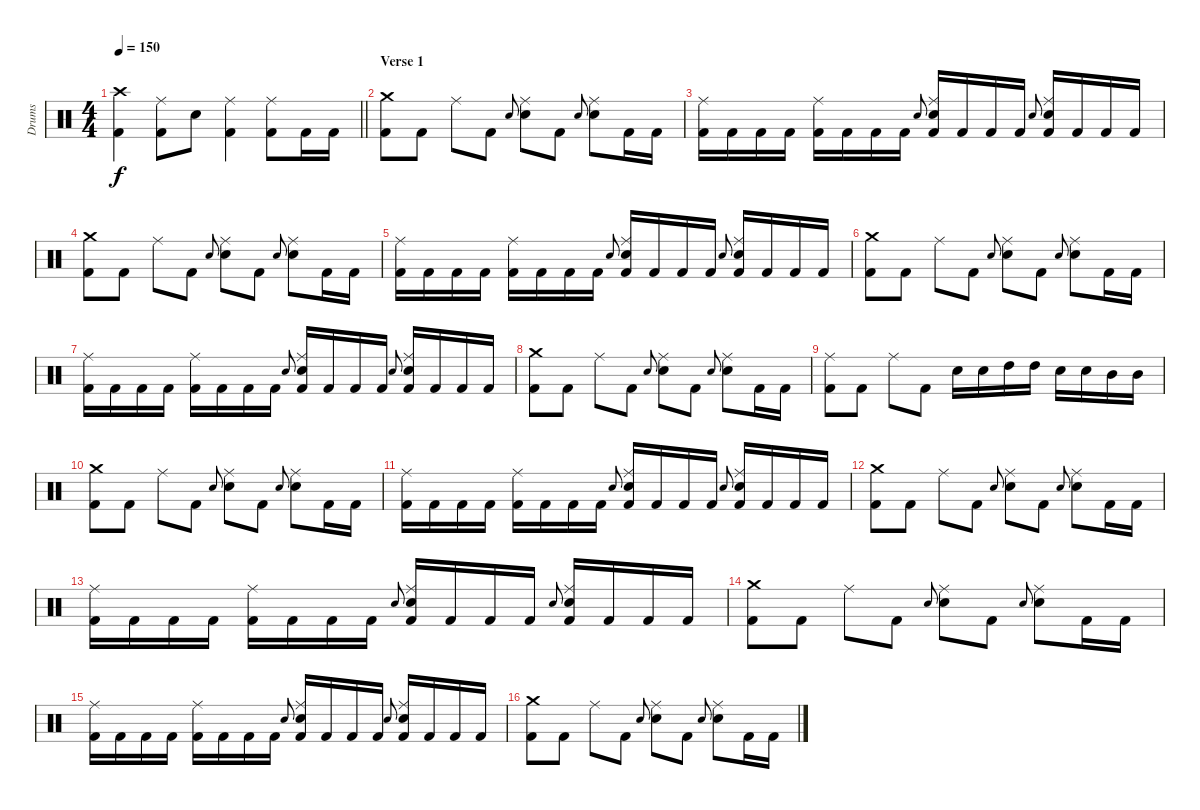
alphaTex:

\track ("Drums" "Drums") {instrument percussion}
\staff {score}
\articulation defaults
\ts (4 4)
\tempo 150
\clef neutral
\barLineRight lightlight
\ks c
("Kick (hit) 2" "Crash high (hit)").4{dy f} ("Kick (hit) 2" "Ride (middle)").8 "Snare (hit) 2".8 ("Kick (hit) 2" "Ride (middle)").4 ("Kick (hit) 2" "Ride (middle)").8 "Kick (hit) 2".16 "Kick (hit) 2".16 |
\section ("" "Verse 1")
("Kick (hit) 2" "Crash medium (hit)").8 "Kick (hit) 2".8 "Ride (middle)".8 "Kick (hit) 2".8 "Snare (hit) 2".8{gr onbeat} ("Snare (hit) 2" "Ride (middle)").8 "Kick (hit) 2".8 "Snare (hit) 2".8{gr onbeat} ("Snare (hit) 2" "Ride (middle)").8 "Kick (hit) 2".16 "Kick (hit) 2".16 |
("Kick (hit) 2" "Ride (middle)").16 "Kick (hit) 2".16 "Kick (hit) 2".16 "Kick (hit) 2".16 ("Kick (hit) 2" "Ride (middle)").16 "Kick (hit) 2".16 "Kick (hit) 2".16 "Kick (hit) 2".16 "Snare (hit) 2".8{gr onbeat} ("Kick (hit) 2" "Snare (hit) 2" "Ride (middle)").16 "Kick (hit) 2".16 "Kick (hit) 2".16 "Kick (hit) 2".16 "Snare (hit) 2".8{gr onbeat} ("Kick (hit) 2" "Snare (hit) 2" "Ride (middle)").16 "Kick (hit) 2".16 "Kick (hit) 2".16 "Kick (hit) 2".16 |
("Kick (hit) 2" "Crash medium (hit)").8 "Kick (hit) 2".8 "Ride (middle)".8 "Kick (hit) 2".8 "Snare (hit) 2".8{gr onbeat} ("Snare (hit) 2" "Ride (middle)").8 "Kick (hit) 2".8 "Snare (hit) 2".8{gr onbeat} ("Snare (hit) 2" "Ride (middle)").8 "Kick (hit) 2".16 "Kick (hit) 2".16 |
("Kick (hit) 2" "Ride (middle)").16 "Kick (hit) 2".16 "Kick (hit) 2".16 "Kick (hit) 2".16 ("Kick (hit) 2" "Ride (middle)").16 "Kick (hit) 2".16 "Kick (hit) 2".16 "Kick (hit) 2".16 "Snare (hit) 2".8{gr onbeat} ("Kick (hit) 2" "Snare (hit) 2" "Ride (middle)").16 "Kick (hit) 2".16 "Kick (hit) 2".16 "Kick (hit) 2".16 "Snare (hit) 2".8{gr onbeat} ("Kick (hit) 2" "Snare (hit) 2" "Ride (middle)").16 "Kick (hit) 2".16 "Kick (hit) 2".16 "Kick (hit) 2".16 |
("Kick (hit) 2" "Crash medium (hit)").8 "Kick (hit) 2".8 "Ride (middle)".8 "Kick (hit) 2".8 "Snare (hit) 2".8{gr onbeat} ("Snare (hit) 2" "Ride (middle)").8 "Kick (hit) 2".8 "Snare (hit) 2".8{gr onbeat} ("Snare (hit) 2" "Ride (middle)").8 "Kick (hit) 2".16 "Kick (hit) 2".16 |
("Kick (hit) 2" "Ride (middle)").16 "Kick (hit) 2".16 "Kick (hit) 2".16 "Kick (hit) 2".16 ("Kick (hit) 2" "Ride (middle)").16 "Kick (hit) 2".16 "Kick (hit) 2".16 "Kick (hit) 2".16 "Snare (hit) 2".8{gr onbeat} ("Kick (hit) 2" "Snare (hit) 2" "Ride (middle)").16 "Kick (hit) 2".16 "Kick (hit) 2".16 "Kick (hit) 2".16 "Snare (hit) 2".8{gr onbeat} ("Kick (hit) 2" "Snare (hit) 2" "Ride (middle)").16 "Kick (hit) 2".16 "Kick (hit) 2".16 "Kick (hit) 2".16 |
("Kick (hit) 2" "Crash medium (hit)").8 "Kick (hit) 2".8 "Ride (middle)".8 "Kick (hit) 2".8 "Snare (hit) 2".8{gr onbeat} ("Snare (hit) 2" "Ride (middle)").8 "Kick (hit) 2".8 "Snare (hit) 2".8{gr onbeat} ("Snare (hit) 2" "Ride (middle)").8 "Kick (hit) 2".16 "Kick (hit) 2".16 |
("Kick (hit) 2" "Ride (middle)").8 "Kick (hit) 2".8 "Ride (middle)".8 "Kick (hit) 2".8 "Snare (hit) 2".16 "Snare (hit) 2".16 "High Tom (hit)".16 "High Tom (hit)".16 "Snare (hit) 2".16 "Snare (hit) 2".16 "Mid Tom (hit)".16 "Mid Tom (hit)".16 |
("Kick (hit) 2" "Crash medium (hit)").8 "Kick (hit) 2".8 "Ride (middle)".8 "Kick (hit) 2".8 "Snare (hit) 2".8{gr onbeat} ("Snare (hit) 2" "Ride (middle)").8 "Kick (hit) 2".8 "Snare (hit) 2".8{gr onbeat} ("Snare (hit) 2" "Ride (middle)").8 "Kick (hit) 2".16 "Kick (hit) 2".16 |
("Kick (hit) 2" "Ride (middle)").16 "Kick (hit) 2".16 "Kick (hit) 2".16 "Kick (hit) 2".16 ("Kick (hit) 2" "Ride (middle)").16 "Kick (hit) 2".16 "Kick (hit) 2".16 "Kick (hit) 2".16 "Snare (hit) 2".8{gr onbeat} ("Kick (hit) 2" "Snare (hit) 2" "Ride (middle)").16 "Kick (hit) 2".16 "Kick (hit) 2".16 "Kick (hit) 2".16 "Snare (hit) 2".8{gr onbeat} ("Kick (hit) 2" "Snare (hit) 2" "Ride (middle)").16 "Kick (hit) 2".16 "Kick (hit) 2".16 "Kick (hit) 2".16 |
("Kick (hit) 2" "Crash medium (hit)").8 "Kick (hit) 2".8 "Ride (middle)".8 "Kick (hit) 2".8 "Snare (hit) 2".8{gr onbeat} ("Snare (hit) 2" "Ride (middle)").8 "Kick (hit) 2".8 "Snare (hit) 2".8{gr onbeat} ("Snare (hit) 2" "Ride (middle)").8 "Kick (hit) 2".16 "Kick (hit) 2".16 |
("Kick (hit) 2" "Ride (middle)").16 "Kick (hit) 2".16 "Kick (hit) 2".16 "Kick (hit) 2".16 ("Kick (hit) 2" "Ride (middle)").16 "Kick (hit) 2".16 "Kick (hit) 2".16 "Kick (hit) 2".16 "Snare (hit) 2".8{gr onbeat} ("Kick (hit) 2" "Snare (hit) 2" "Ride (middle)").16 "Kick (hit) 2".16 "Kick (hit) 2".16 "Kick (hit) 2".16 "Snare (hit) 2".8{gr onbeat} ("Kick (hit) 2" "Snare (hit) 2" "Ride (middle)").16 "Kick (hit) 2".16 "Kick (hit) 2".16 "Kick (hit) 2".16 |
("Kick (hit) 2" "Crash medium (hit)").8 "Kick (hit) 2".8 "Ride (middle)".8 "Kick (hit) 2".8 "Snare (hit) 2".8{gr onbeat} ("Snare (hit) 2" "Ride (middle)").8 "Kick (hit) 2".8 "Snare (hit) 2".8{gr onbeat} ("Snare (hit) 2" "Ride (middle)").8 "Kick (hit) 2".16 "Kick (hit) 2".16 |
("Kick (hit) 2" "Ride (middle)").16 "Kick (hit) 2".16 "Kick (hit) 2".16 "Kick (hit) 2".16 ("Kick (hit) 2" "Ride (middle)").16 "Kick (hit) 2".16 "Kick (hit) 2".16 "Kick (hit) 2".16 "Snare (hit) 2".8{gr onbeat} ("Kick (hit) 2" "Snare (hit) 2" "Ride (middle)").16 "Kick (hit) 2".16 "Kick (hit) 2".16 "Kick (hit) 2".16 "Snare (hit) 2".8{gr onbeat} ("Kick (hit) 2" "Snare (hit) 2" "Ride (middle)").16 "Kick (hit) 2".16 "Kick (hit) 2".16 "Kick (hit) 2".16 |
("Kick (hit) 2" "Crash medium (hit)").8 "Kick (hit) 2".8 "Ride (middle)".8 "Kick (hit) 2".8 "Snare (hit) 2".8{gr onbeat} ("Snare (hit) 2" "Ride (middle)").8 "Kick (hit) 2".8 "Snare (hit) 2".8{gr onbeat} ("Snare (hit) 2" "Ride (middle)").8 "Kick (hit) 2".16 "Kick (hit) 2".16
